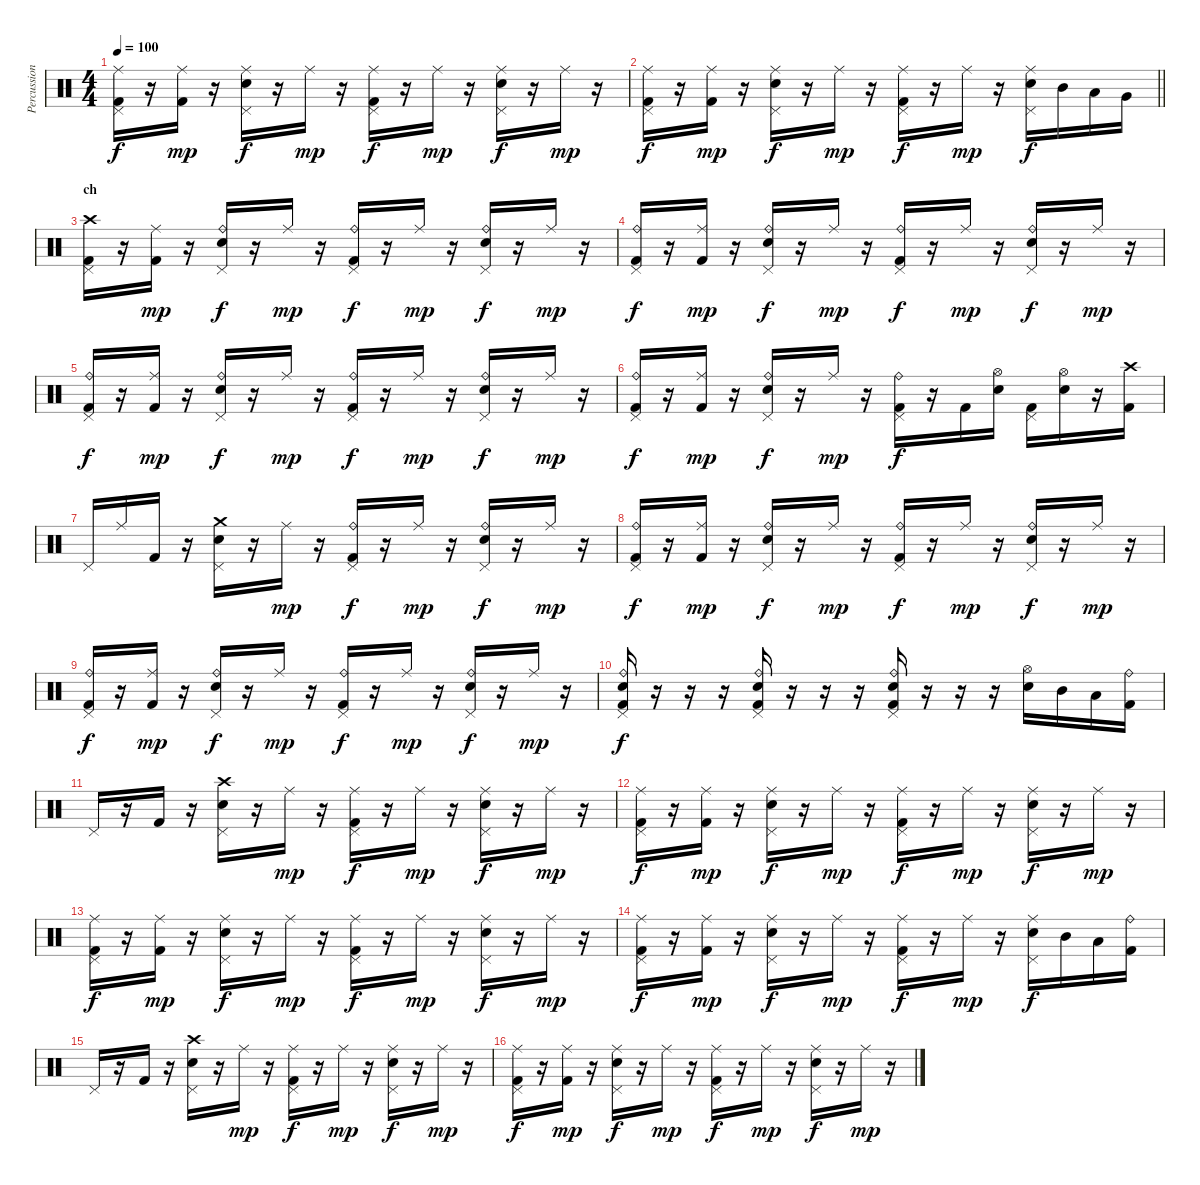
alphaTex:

\track ("Percussion" "Percussion") {instrument percussion}
\staff {score}
\articulation defaults
\ts (4 4)
\tempo 100
\clef neutral
\ks c
("Ride (middle)" "Pedal Hi-Hat (hit)" "Kick (hit) 2").16{dy f} r.16 ("Ride (middle)" "Kick (hit) 2").16{dy mp} r.16 ("Ride (middle)" "Electric Snare (hit)" "Pedal Hi-Hat (hit)").16{dy f} r.16 "Ride (middle)".16{dy mp} r.16 ("Ride (middle)" "Pedal Hi-Hat (hit)" "Kick (hit) 2").16{dy f} r.16 "Ride (middle)".16{dy mp} r.16 ("Ride (middle)" "Electric Snare (hit)" "Pedal Hi-Hat (hit)").16{dy f} r.16 "Ride (middle)".16{dy mp} r.16 |
\barLineRight lightlight
("Ride (middle)" "Pedal Hi-Hat (hit)" "Kick (hit) 2").16{dy f} r.16 ("Ride (middle)" "Kick (hit) 2").16{dy mp} r.16 ("Ride (middle)" "Electric Snare (hit)" "Pedal Hi-Hat (hit)").16{dy f} r.16 "Ride (middle)".16{dy mp} r.16 ("Ride (middle)" "Pedal Hi-Hat (hit)" "Kick (hit) 2").16{dy f} r.16 "Ride (middle)".16{dy mp} r.16 ("Ride (middle)" "Electric Snare (hit)" "Pedal Hi-Hat (hit)").16{dy f} "Mid Tom (hit)".16 "Low Tom (hit)".16 "Very Low Tom (hit)".16 |
\section ("" "ch")
("Crash high (hit)" "Pedal Hi-Hat (hit)" "Kick (hit) 2").16 r.16 ("Ride (middle)" "Kick (hit) 2").16{dy mp} r.16 ("Ride (bell)" "Electric Snare (hit)" "Pedal Hi-Hat (hit)").16{dy f} r.16 "Ride (middle)".16{dy mp} r.16 ("Ride (bell)" "Pedal Hi-Hat (hit)" "Kick (hit) 2").16{dy f} r.16 "Ride (middle)".16{dy mp} r.16 ("Ride (bell)" "Electric Snare (hit)" "Pedal Hi-Hat (hit)").16{dy f} r.16 "Ride (middle)".16{dy mp} r.16 |
("Ride (bell)" "Pedal Hi-Hat (hit)" "Kick (hit) 2").16{dy f} r.16 ("Ride (middle)" "Kick (hit) 2").16{dy mp} r.16 ("Ride (bell)" "Electric Snare (hit)" "Pedal Hi-Hat (hit)").16{dy f} r.16 "Ride (middle)".16{dy mp} r.16 ("Ride (bell)" "Pedal Hi-Hat (hit)" "Kick (hit) 2").16{dy f} r.16 "Ride (middle)".16{dy mp} r.16 ("Ride (bell)" "Electric Snare (hit)" "Pedal Hi-Hat (hit)").16{dy f} r.16 "Ride (middle)".16{dy mp} r.16 |
("Ride (bell)" "Pedal Hi-Hat (hit)" "Kick (hit) 2").16{dy f} r.16 ("Ride (middle)" "Kick (hit) 2").16{dy mp} r.16 ("Ride (bell)" "Electric Snare (hit)" "Pedal Hi-Hat (hit)").16{dy f} r.16 "Ride (middle)".16{dy mp} r.16 ("Ride (bell)" "Pedal Hi-Hat (hit)" "Kick (hit) 2").16{dy f} r.16 "Ride (middle)".16{dy mp} r.16 ("Ride (bell)" "Electric Snare (hit)" "Pedal Hi-Hat (hit)").16{dy f} r.16 "Ride (middle)".16{dy mp} r.16 |
("Ride (bell)" "Pedal Hi-Hat (hit)" "Kick (hit) 2").16{dy f} r.16 ("Ride (middle)" "Kick (hit) 2").16{dy mp} r.16 ("Ride (bell)" "Electric Snare (hit)" "Pedal Hi-Hat (hit)").16{dy f} r.16 "Ride (middle)".16{dy mp} r.16 ("Ride (bell)" "Pedal Hi-Hat (hit)" "Kick (hit) 2").16{dy f} r.16 "Kick (hit) 2".16 ("Hi-Hat (open)" "Electric Snare (hit)").16 ("Pedal Hi-Hat (hit)" "Kick (hit) 2").16 ("Hi-Hat (open)" "Electric Snare (hit)").16 r.16 ("Crash high (hit)" "Kick (hit) 2").16 |
"Pedal Hi-Hat (hit)".16 "Ride (middle)".16 "Kick (hit) 2".16 r.16 ("Crash medium (hit)" "Electric Snare (hit)" "Pedal Hi-Hat (hit)").16 r.16 "Ride (middle)".16{dy mp} r.16 ("Ride (bell)" "Pedal Hi-Hat (hit)" "Kick (hit) 2").16{dy f} r.16 "Ride (middle)".16{dy mp} r.16 ("Ride (bell)" "Electric Snare (hit)" "Pedal Hi-Hat (hit)").16{dy f} r.16 "Ride (middle)".16{dy mp} r.16 |
("Ride (bell)" "Pedal Hi-Hat (hit)" "Kick (hit) 2").16{dy f} r.16 ("Ride (middle)" "Kick (hit) 2").16{dy mp} r.16 ("Ride (bell)" "Electric Snare (hit)" "Pedal Hi-Hat (hit)").16{dy f} r.16 "Ride (middle)".16{dy mp} r.16 ("Ride (bell)" "Pedal Hi-Hat (hit)" "Kick (hit) 2").16{dy f} r.16 "Ride (middle)".16{dy mp} r.16 ("Ride (bell)" "Electric Snare (hit)" "Pedal Hi-Hat (hit)").16{dy f} r.16 "Ride (middle)".16{dy mp} r.16 |
("Ride (bell)" "Pedal Hi-Hat (hit)" "Kick (hit) 2").16{dy f} r.16 ("Ride (middle)" "Kick (hit) 2").16{dy mp} r.16 ("Ride (bell)" "Electric Snare (hit)" "Pedal Hi-Hat (hit)").16{dy f} r.16 "Ride (middle)".16{dy mp} r.16 ("Ride (bell)" "Pedal Hi-Hat (hit)" "Kick (hit) 2").16{dy f} r.16 "Ride (middle)".16{dy mp} r.16 ("Ride (bell)" "Electric Snare (hit)" "Pedal Hi-Hat (hit)").16{dy f} r.16 "Ride (middle)".16{dy mp} r.16 |
("Ride (bell)" "Electric Snare (hit)" "Pedal Hi-Hat (hit)" "Kick (hit) 2").16{dy f} r.16 r.16 r.16 ("Ride (bell)" "Electric Snare (hit)" "Pedal Hi-Hat (hit)" "Kick (hit) 2").16 r.16 r.16 r.16 ("Ride (bell)" "Electric Snare (hit)" "Pedal Hi-Hat (hit)" "Kick (hit) 2").16 r.16 r.16 r.16 ("Hi-Hat (open)" "Electric Snare (hit)").16 "Mid Tom (hit)".16 "Low Tom (hit)".16 ("Ride (bell)" "Kick (hit) 2").16 |
"Pedal Hi-Hat (hit)".16 r.16 "Kick (hit) 2".16 r.16 ("Crash high (hit)" "Electric Snare (hit)" "Pedal Hi-Hat (hit)").16 r.16 "Ride (middle)".16{dy mp} r.16 ("Ride (middle)" "Pedal Hi-Hat (hit)" "Kick (hit) 2").16{dy f} r.16 "Ride (middle)".16{dy mp} r.16 ("Ride (middle)" "Electric Snare (hit)" "Pedal Hi-Hat (hit)").16{dy f} r.16 "Ride (middle)".16{dy mp} r.16 |
("Ride (middle)" "Pedal Hi-Hat (hit)" "Kick (hit) 2").16{dy f} r.16 ("Ride (middle)" "Kick (hit) 2").16{dy mp} r.16 ("Ride (middle)" "Electric Snare (hit)" "Pedal Hi-Hat (hit)").16{dy f} r.16 "Ride (middle)".16{dy mp} r.16 ("Ride (middle)" "Pedal Hi-Hat (hit)" "Kick (hit) 2").16{dy f} r.16 "Ride (middle)".16{dy mp} r.16 ("Ride (middle)" "Electric Snare (hit)" "Pedal Hi-Hat (hit)").16{dy f} r.16 "Ride (middle)".16{dy mp} r.16 |
("Ride (middle)" "Pedal Hi-Hat (hit)" "Kick (hit) 2").16{dy f} r.16 ("Ride (middle)" "Kick (hit) 2").16{dy mp} r.16 ("Ride (middle)" "Electric Snare (hit)" "Pedal Hi-Hat (hit)").16{dy f} r.16 "Ride (middle)".16{dy mp} r.16 ("Ride (middle)" "Pedal Hi-Hat (hit)" "Kick (hit) 2").16{dy f} r.16 "Ride (middle)".16{dy mp} r.16 ("Ride (middle)" "Electric Snare (hit)" "Pedal Hi-Hat (hit)").16{dy f} r.16 "Ride (middle)".16{dy mp} r.16 |
("Ride (middle)" "Pedal Hi-Hat (hit)" "Kick (hit) 2").16{dy f} r.16 ("Ride (middle)" "Kick (hit) 2").16{dy mp} r.16 ("Ride (middle)" "Electric Snare (hit)" "Pedal Hi-Hat (hit)").16{dy f} r.16 "Ride (middle)".16{dy mp} r.16 ("Ride (middle)" "Pedal Hi-Hat (hit)" "Kick (hit) 2").16{dy f} r.16 "Ride (middle)".16{dy mp} r.16 ("Ride (middle)" "Electric Snare (hit)" "Pedal Hi-Hat (hit)").16{dy f} "Mid Tom (hit)".16 "Low Tom (hit)".16 ("Ride (bell)" "Kick (hit) 2").16 |
"Pedal Hi-Hat (hit)".16 r.16 "Kick (hit) 2".16 r.16 ("Crash high (hit)" "Electric Snare (hit)" "Pedal Hi-Hat (hit)").16 r.16 "Ride (middle)".16{dy mp} r.16 ("Ride (middle)" "Pedal Hi-Hat (hit)" "Kick (hit) 2").16{dy f} r.16 "Ride (middle)".16{dy mp} r.16 ("Ride (middle)" "Electric Snare (hit)" "Pedal Hi-Hat (hit)").16{dy f} r.16 "Ride (middle)".16{dy mp} r.16 |
("Ride (middle)" "Pedal Hi-Hat (hit)" "Kick (hit) 2").16{dy f} r.16 ("Ride (middle)" "Kick (hit) 2").16{dy mp} r.16 ("Ride (middle)" "Electric Snare (hit)" "Pedal Hi-Hat (hit)").16{dy f} r.16 "Ride (middle)".16{dy mp} r.16 ("Ride (middle)" "Pedal Hi-Hat (hit)" "Kick (hit) 2").16{dy f} r.16 "Ride (middle)".16{dy mp} r.16 ("Ride (middle)" "Electric Snare (hit)" "Pedal Hi-Hat (hit)").16{dy f} r.16 "Ride (middle)".16{dy mp} r.16
